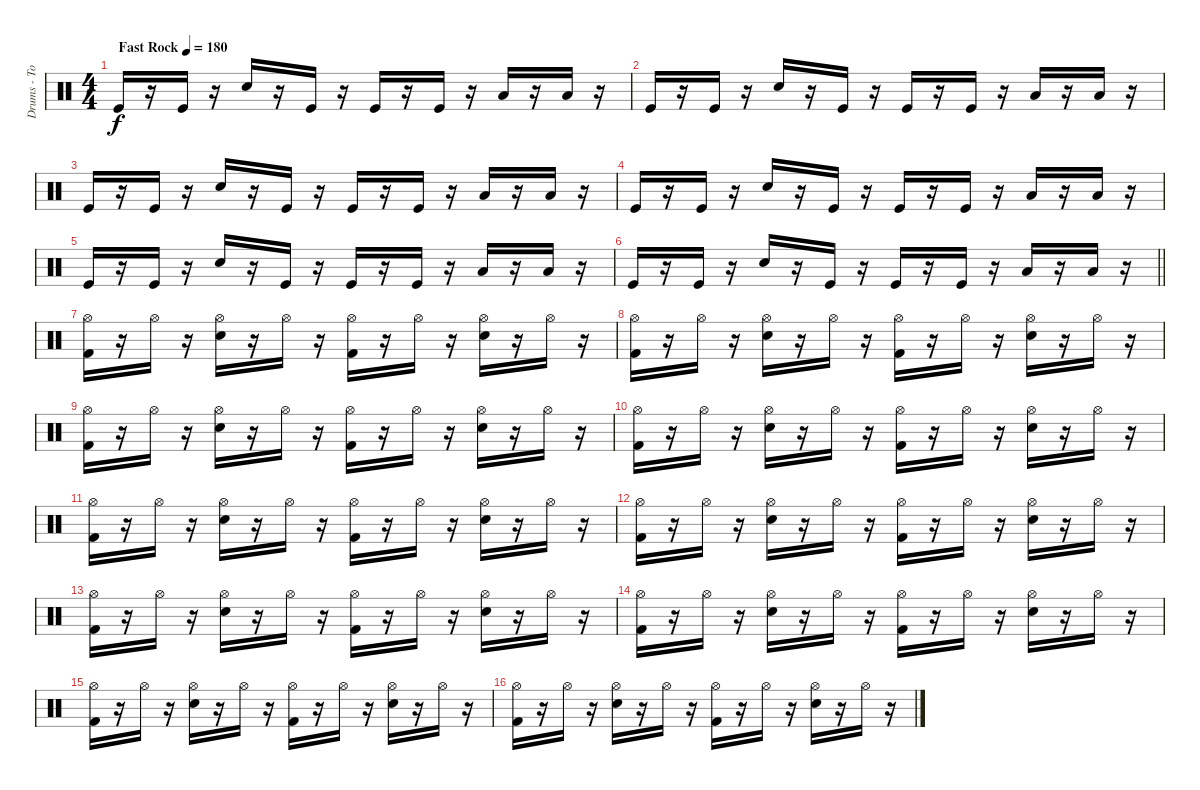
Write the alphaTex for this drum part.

\track ("Drums - Tommy Ramone" "Drums - To") {instrument percussion}
\staff {score}
\articulation defaults
\ts (4 4)
\tempo (180 "Fast Rock")
\clef neutral
\ks c "Kick (hit)".16{dy f}
r.16 "Kick (hit)".16 r.16 "Electric Snare (hit)".16 r.16 "Kick (hit)".16 r.16 "Kick (hit)".16 r.16 "Kick (hit)".16 r.16 "Low Floor Tom (hit)".16 r.16 "Low Floor Tom (hit)".16 r.16 |
"Kick (hit)".16 r.16 "Kick (hit)".16 r.16 "Electric Snare (hit)".16 r.16 "Kick (hit)".16 r.16 "Kick (hit)".16 r.16 "Kick (hit)".16 r.16 "Low Floor Tom (hit)".16 r.16 "Low Floor Tom (hit)".16 r.16 |
"Kick (hit)".16 r.16 "Kick (hit)".16 r.16 "Electric Snare (hit)".16 r.16 "Kick (hit)".16 r.16 "Kick (hit)".16 r.16 "Kick (hit)".16 r.16 "Low Floor Tom (hit)".16 r.16 "Low Floor Tom (hit)".16 r.16 |
"Kick (hit)".16 r.16 "Kick (hit)".16 r.16 "Electric Snare (hit)".16 r.16 "Kick (hit)".16 r.16 "Kick (hit)".16 r.16 "Kick (hit)".16 r.16 "Low Floor Tom (hit)".16 r.16 "Low Floor Tom (hit)".16 r.16 |
"Kick (hit)".16 r.16 "Kick (hit)".16 r.16 "Electric Snare (hit)".16 r.16 "Kick (hit)".16 r.16 "Kick (hit)".16 r.16 "Kick (hit)".16 r.16 "Low Floor Tom (hit)".16 r.16 "Low Floor Tom (hit)".16 r.16 |
\barLineRight lightlight "Kick (hit)".16
r.16 "Kick (hit)".16 r.16 "Electric Snare (hit)".16 r.16 "Kick (hit)".16 r.16 "Kick (hit)".16 r.16 "Kick (hit)".16 r.16 "Low Floor Tom (hit)".16 r.16 "Low Floor Tom (hit)".16 r.16 |
("Hi-Hat (open)" "Kick (hit) 2").16 r.16 "Hi-Hat (open)".16 r.16 ("Hi-Hat (open)" "Electric Snare (hit)").16 r.16 "Hi-Hat (open)".16 r.16 ("Hi-Hat (open)" "Kick (hit) 2").16 r.16 "Hi-Hat (open)".16 r.16 ("Hi-Hat (open)" "Electric Snare (hit)").16 r.16 "Hi-Hat (open)".16 r.16 |
("Hi-Hat (open)" "Kick (hit) 2").16 r.16 "Hi-Hat (open)".16 r.16 ("Hi-Hat (open)" "Electric Snare (hit)").16 r.16 "Hi-Hat (open)".16 r.16 ("Hi-Hat (open)" "Kick (hit) 2").16 r.16 "Hi-Hat (open)".16 r.16 ("Hi-Hat (open)" "Electric Snare (hit)").16 r.16 "Hi-Hat (open)".16 r.16 |
("Hi-Hat (open)" "Kick (hit) 2").16 r.16 "Hi-Hat (open)".16 r.16 ("Hi-Hat (open)" "Electric Snare (hit)").16 r.16 "Hi-Hat (open)".16 r.16 ("Hi-Hat (open)" "Kick (hit) 2").16 r.16 "Hi-Hat (open)".16 r.16 ("Hi-Hat (open)" "Electric Snare (hit)").16 r.16 "Hi-Hat (open)".16 r.16 |
("Hi-Hat (open)" "Kick (hit) 2").16 r.16 "Hi-Hat (open)".16 r.16 ("Hi-Hat (open)" "Electric Snare (hit)").16 r.16 "Hi-Hat (open)".16 r.16 ("Hi-Hat (open)" "Kick (hit) 2").16 r.16 "Hi-Hat (open)".16 r.16 ("Hi-Hat (open)" "Electric Snare (hit)").16 r.16 "Hi-Hat (open)".16 r.16 |
("Hi-Hat (open)" "Kick (hit) 2").16 r.16 "Hi-Hat (open)".16 r.16 ("Hi-Hat (open)" "Electric Snare (hit)").16 r.16 "Hi-Hat (open)".16 r.16 ("Hi-Hat (open)" "Kick (hit) 2").16 r.16 "Hi-Hat (open)".16 r.16 ("Hi-Hat (open)" "Electric Snare (hit)").16 r.16 "Hi-Hat (open)".16 r.16 |
("Hi-Hat (open)" "Kick (hit) 2").16 r.16 "Hi-Hat (open)".16 r.16 ("Hi-Hat (open)" "Electric Snare (hit)").16 r.16 "Hi-Hat (open)".16 r.16 ("Hi-Hat (open)" "Kick (hit) 2").16 r.16 "Hi-Hat (open)".16 r.16 ("Hi-Hat (open)" "Electric Snare (hit)").16 r.16 "Hi-Hat (open)".16 r.16 |
("Hi-Hat (open)" "Kick (hit) 2").16 r.16 "Hi-Hat (open)".16 r.16 ("Hi-Hat (open)" "Electric Snare (hit)").16 r.16 "Hi-Hat (open)".16 r.16 ("Hi-Hat (open)" "Kick (hit) 2").16 r.16 "Hi-Hat (open)".16 r.16 ("Hi-Hat (open)" "Electric Snare (hit)").16 r.16 "Hi-Hat (open)".16 r.16 |
("Hi-Hat (open)" "Kick (hit) 2").16 r.16 "Hi-Hat (open)".16 r.16 ("Hi-Hat (open)" "Electric Snare (hit)").16 r.16 "Hi-Hat (open)".16 r.16 ("Hi-Hat (open)" "Kick (hit) 2").16 r.16 "Hi-Hat (open)".16 r.16 ("Hi-Hat (open)" "Electric Snare (hit)").16 r.16 "Hi-Hat (open)".16 r.16 |
("Hi-Hat (open)" "Kick (hit) 2").16 r.16 "Hi-Hat (open)".16 r.16 ("Hi-Hat (open)" "Electric Snare (hit)").16 r.16 "Hi-Hat (open)".16 r.16 ("Hi-Hat (open)" "Kick (hit) 2").16 r.16 "Hi-Hat (open)".16 r.16 ("Hi-Hat (open)" "Electric Snare (hit)").16 r.16 "Hi-Hat (open)".16 r.16 |
("Hi-Hat (open)" "Kick (hit) 2").16 r.16 "Hi-Hat (open)".16 r.16 ("Hi-Hat (open)" "Electric Snare (hit)").16 r.16 "Hi-Hat (open)".16 r.16 ("Hi-Hat (open)" "Kick (hit) 2").16 r.16 "Hi-Hat (open)".16 r.16 ("Hi-Hat (open)" "Electric Snare (hit)").16 r.16 "Hi-Hat (open)".16 r.16
